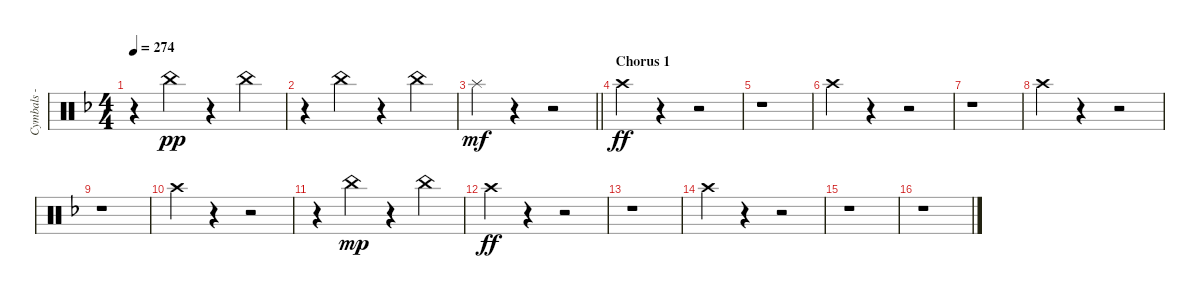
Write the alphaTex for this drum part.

\track ("Cymbals - crash" "Cymbals - ") {instrument percussion}
\staff {score}
\articulation defaults
\ts (4 4)
\tempo 274
\clef neutral
\ks dminor
r.4{dy pp} "China (hit)".4 r.4 "China (hit)".4 |
r.4 "China (hit)".4 r.4 "China (hit)".4 |
\barLineRight lightlight "Splash (hit)".4{dy mf}
r.4 r.2 |
\section ("" "Chorus 1")
"Crash high (hit)".4{dy ff} r.4 r.2 |
r.1 |
"Crash high (hit)".4 r.4 r.2 |
r.1 |
"Crash high (hit)".4 r.4 r.2 |
r.1 |
"Crash high (hit)".4 r.4 r.2 |
r.4 "China (hit)".4{dy mp} r.4 "China (hit)".4 |
"Crash high (hit)".4{dy ff} r.4 r.2 |
r.1 |
"Crash high (hit)".4 r.4 r.2 |
r.1 |
r.1
